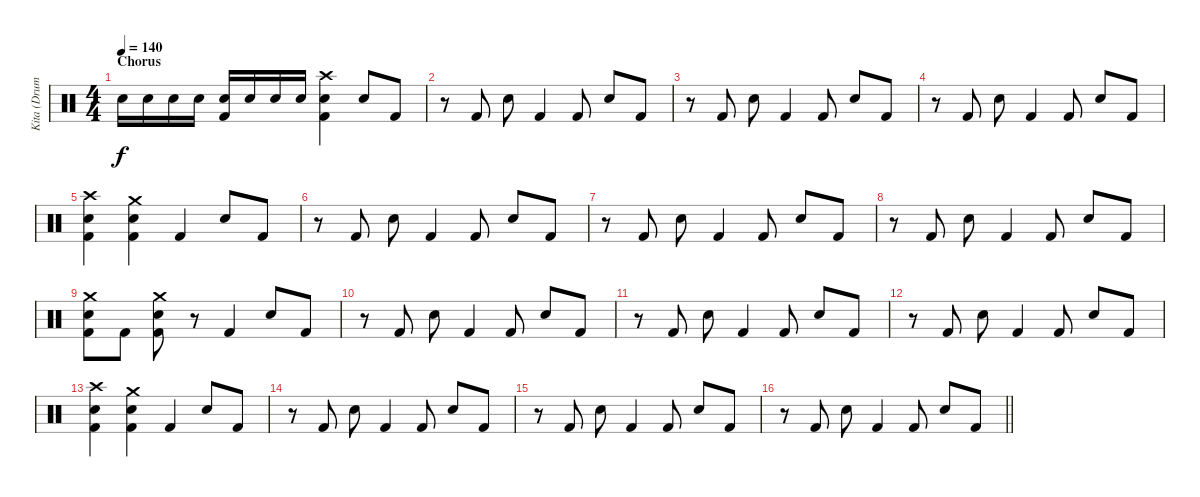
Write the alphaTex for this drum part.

\track ("Kita (Drums)" "Kita (Drum") {instrument percussion}
\staff {score}
\articulation defaults
\ts (4 4)
\section ("" "Chorus")
\tempo 140
\clef neutral
\ks c "Snare (hit) 2".16{dy f} "Snare (hit) 2".16 "Snare (hit) 2".16 "Snare (hit) 2".16
("Snare (hit) 2" "Kick (hit) 2").16 "Snare (hit) 2".16 "Snare (hit) 2".16 "Snare (hit) 2".16 ("Crash high (hit)" "Snare (hit) 2" "Kick (hit) 2").4 "Snare (hit) 2".8 "Kick (hit) 2".8 |
r.8 "Kick (hit) 2".8 "Snare (hit) 2".8 "Kick (hit) 2".4 "Kick (hit) 2".8 "Snare (hit) 2".8 "Kick (hit) 2".8 |
r.8 "Kick (hit) 2".8 "Snare (hit) 2".8 "Kick (hit) 2".4 "Kick (hit) 2".8 "Snare (hit) 2".8 "Kick (hit) 2".8 |
r.8 "Kick (hit) 2".8 "Snare (hit) 2".8 "Kick (hit) 2".4 "Kick (hit) 2".8 "Snare (hit) 2".8 "Kick (hit) 2".8 |
("Crash high (hit)" "Snare (hit) 2" "Kick (hit) 2").4 ("Crash medium (hit)" "Snare (hit) 2" "Kick (hit) 2").4 "Kick (hit) 2".4 "Snare (hit) 2".8 "Kick (hit) 2".8 |
r.8 "Kick (hit) 2".8 "Snare (hit) 2".8 "Kick (hit) 2".4 "Kick (hit) 2".8 "Snare (hit) 2".8 "Kick (hit) 2".8 |
r.8 "Kick (hit) 2".8 "Snare (hit) 2".8 "Kick (hit) 2".4 "Kick (hit) 2".8 "Snare (hit) 2".8 "Kick (hit) 2".8 |
r.8 "Kick (hit) 2".8 "Snare (hit) 2".8 "Kick (hit) 2".4 "Kick (hit) 2".8 "Snare (hit) 2".8 "Kick (hit) 2".8 |
("Crash medium (hit)" "Snare (hit) 2" "Kick (hit) 2").8 "Kick (hit) 2".8 ("Crash medium (hit)" "Snare (hit) 2" "Kick (hit) 2").8 r.8 "Kick (hit) 2".4 "Snare (hit) 2".8 "Kick (hit) 2".8 |
r.8 "Kick (hit) 2".8 "Snare (hit) 2".8 "Kick (hit) 2".4 "Kick (hit) 2".8 "Snare (hit) 2".8 "Kick (hit) 2".8 |
r.8 "Kick (hit) 2".8 "Snare (hit) 2".8 "Kick (hit) 2".4 "Kick (hit) 2".8 "Snare (hit) 2".8 "Kick (hit) 2".8 |
r.8 "Kick (hit) 2".8 "Snare (hit) 2".8 "Kick (hit) 2".4 "Kick (hit) 2".8 "Snare (hit) 2".8 "Kick (hit) 2".8 |
("Crash high (hit)" "Snare (hit) 2" "Kick (hit) 2").4 ("Crash medium (hit)" "Snare (hit) 2" "Kick (hit) 2").4 "Kick (hit) 2".4 "Snare (hit) 2".8 "Kick (hit) 2".8 |
r.8 "Kick (hit) 2".8 "Snare (hit) 2".8 "Kick (hit) 2".4 "Kick (hit) 2".8 "Snare (hit) 2".8 "Kick (hit) 2".8 |
r.8 "Kick (hit) 2".8 "Snare (hit) 2".8 "Kick (hit) 2".4 "Kick (hit) 2".8 "Snare (hit) 2".8 "Kick (hit) 2".8 |
\barLineRight lightlight
r.8 "Kick (hit) 2".8 "Snare (hit) 2".8 "Kick (hit) 2".4 "Kick (hit) 2".8 "Snare (hit) 2".8 "Kick (hit) 2".8
